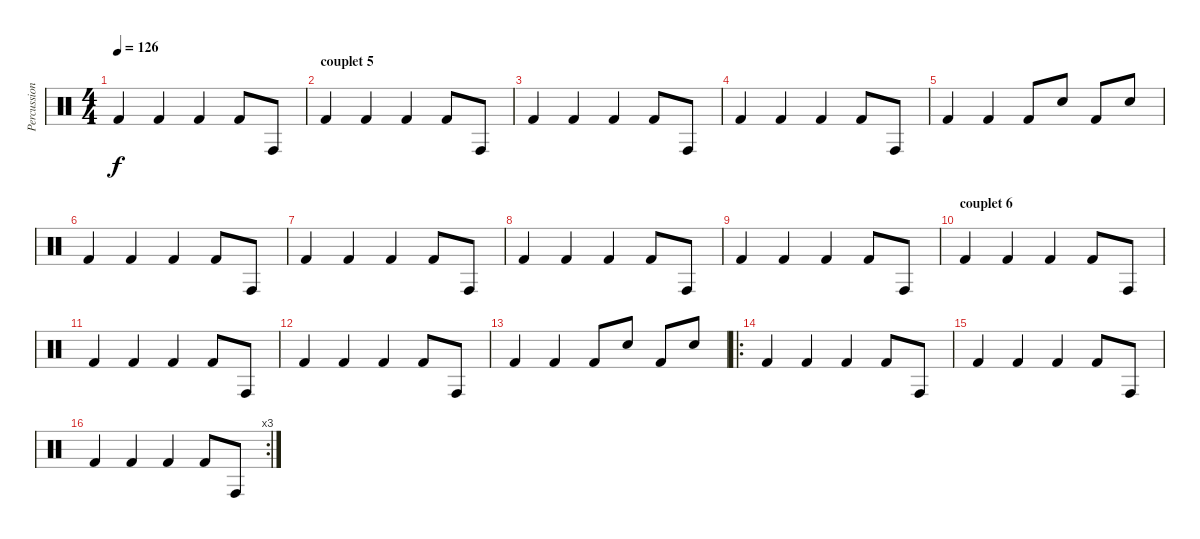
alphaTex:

\track ("Percussions" "Percussion") {instrument percussion}
\staff {score}
\articulation defaults
\ts (4 4)
\tempo 126
\clef neutral
\ks c "Kick (hit) 2".4{dy f} "Kick (hit) 2".4 "Kick (hit) 2".4 "Kick (hit) 2".8 "Conga high (hit)".8
|
\section ("" "couplet 5")
"Kick (hit) 2".4 "Kick (hit) 2".4 "Kick (hit) 2".4 "Kick (hit) 2".8 "Conga high (hit)".8 |
"Kick (hit) 2".4 "Kick (hit) 2".4 "Kick (hit) 2".4 "Kick (hit) 2".8 "Conga high (hit)".8 |
"Kick (hit) 2".4 "Kick (hit) 2".4 "Kick (hit) 2".4 "Kick (hit) 2".8 "Conga high (hit)".8 |
"Kick (hit) 2".4 "Kick (hit) 2".4 "Kick (hit) 2".8 "Electric Snare (hit)".8 "Kick (hit) 2".8 "Electric Snare (hit)".8 |
"Kick (hit) 2".4 "Kick (hit) 2".4 "Kick (hit) 2".4 "Kick (hit) 2".8 "Conga high (hit)".8 |
"Kick (hit) 2".4 "Kick (hit) 2".4 "Kick (hit) 2".4 "Kick (hit) 2".8 "Conga high (hit)".8 |
"Kick (hit) 2".4 "Kick (hit) 2".4 "Kick (hit) 2".4 "Kick (hit) 2".8 "Conga high (hit)".8 |
"Kick (hit) 2".4 "Kick (hit) 2".4 "Kick (hit) 2".4 "Kick (hit) 2".8 "Conga high (hit)".8 |
\section ("" "couplet 6")
"Kick (hit) 2".4 "Kick (hit) 2".4 "Kick (hit) 2".4 "Kick (hit) 2".8 "Conga high (hit)".8 |
"Kick (hit) 2".4 "Kick (hit) 2".4 "Kick (hit) 2".4 "Kick (hit) 2".8 "Conga high (hit)".8 |
"Kick (hit) 2".4 "Kick (hit) 2".4 "Kick (hit) 2".4 "Kick (hit) 2".8 "Conga high (hit)".8 |
"Kick (hit) 2".4 "Kick (hit) 2".4 "Kick (hit) 2".8 "Electric Snare (hit)".8 "Kick (hit) 2".8 "Electric Snare (hit)".8 |
\ro "Kick (hit) 2".4 "Kick (hit) 2".4 "Kick (hit) 2".4 "Kick (hit) 2".8 "Conga high (hit)".8
|
"Kick (hit) 2".4 "Kick (hit) 2".4 "Kick (hit) 2".4 "Kick (hit) 2".8 "Conga high (hit)".8 |
\rc 3 "Kick (hit) 2".4 "Kick (hit) 2".4 "Kick (hit) 2".4 "Kick (hit) 2".8 "Conga high (hit)".8
